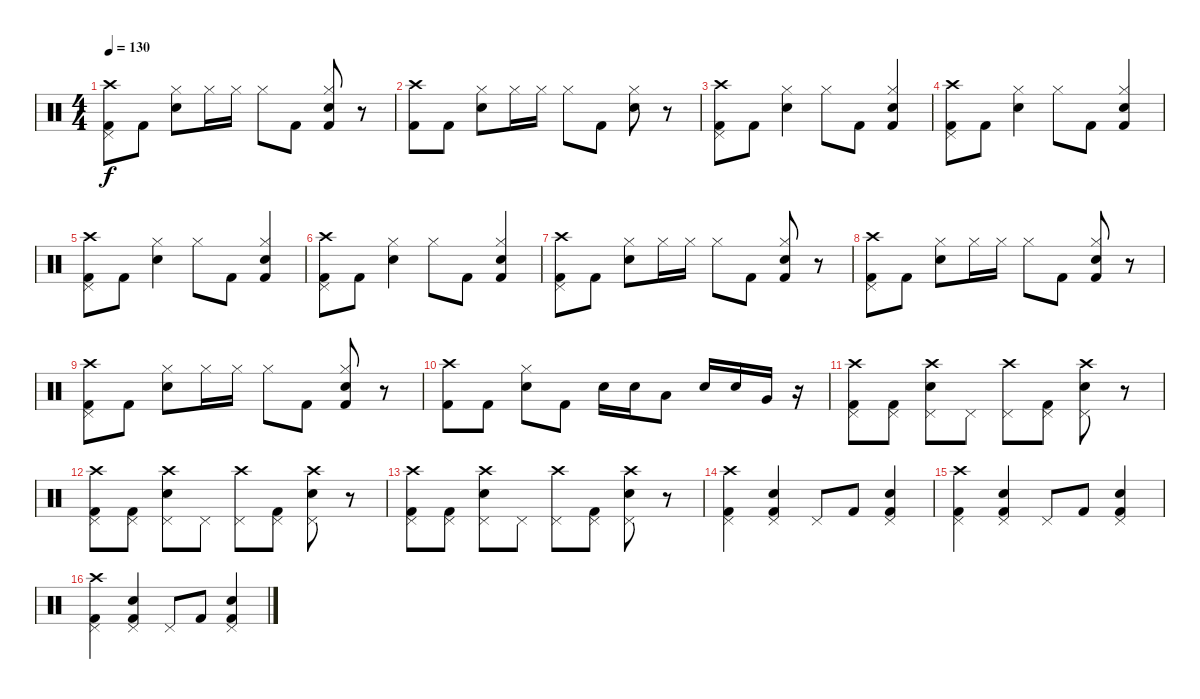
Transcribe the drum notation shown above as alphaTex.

\track "" {instrument percussion}
\staff {score}
\articulation defaults
\ts (4 4)
\tempo 130
\clef neutral
\ks c
("Crash high (hit)" "Pedal Hi-Hat (hit)" "Kick (hit) 2").8{dy f} "Kick (hit) 2".8 ("Hi-Hat (closed)" "Electric Snare (hit)").8 "Hi-Hat (closed)".16 "Hi-Hat (closed)".16 "Hi-Hat (closed)".8 "Kick (hit) 2".8 ("Hi-Hat (closed)" "Electric Snare (hit)" "Kick (hit) 2").8 r.8 |
("Crash high (hit)" "Kick (hit) 2").8 "Kick (hit) 2".8 ("Hi-Hat (closed)" "Electric Snare (hit)").8 "Hi-Hat (closed)".16 "Hi-Hat (closed)".16 "Hi-Hat (closed)".8 "Kick (hit) 2".8 ("Hi-Hat (closed)" "Electric Snare (hit)").8 r.8 |
("Crash high (hit)" "Pedal Hi-Hat (hit)" "Kick (hit) 2").8 "Kick (hit) 2".8 ("Hi-Hat (closed)" "Electric Snare (hit)").4 "Hi-Hat (closed)".8 "Kick (hit) 2".8 ("Hi-Hat (closed)" "Kick (hit) 2" "Electric Snare (hit)").4 |
("Crash high (hit)" "Pedal Hi-Hat (hit)" "Kick (hit) 2").8 "Kick (hit) 2".8 ("Hi-Hat (closed)" "Electric Snare (hit)").4 "Hi-Hat (closed)".8 "Kick (hit) 2".8 ("Hi-Hat (closed)" "Kick (hit) 2" "Electric Snare (hit)").4 |
("Crash high (hit)" "Pedal Hi-Hat (hit)" "Kick (hit) 2").8 "Kick (hit) 2".8 ("Hi-Hat (closed)" "Electric Snare (hit)").4 "Hi-Hat (closed)".8 "Kick (hit) 2".8 ("Hi-Hat (closed)" "Kick (hit) 2" "Electric Snare (hit)").4 |
("Crash high (hit)" "Pedal Hi-Hat (hit)" "Kick (hit) 2").8 "Kick (hit) 2".8 ("Hi-Hat (closed)" "Electric Snare (hit)").4 "Hi-Hat (closed)".8 "Kick (hit) 2".8 ("Hi-Hat (closed)" "Kick (hit) 2" "Electric Snare (hit)").4 |
("Crash high (hit)" "Pedal Hi-Hat (hit)" "Kick (hit) 2").8 "Kick (hit) 2".8 ("Hi-Hat (closed)" "Electric Snare (hit)").8 "Hi-Hat (closed)".16 "Hi-Hat (closed)".16 "Hi-Hat (closed)".8 "Kick (hit) 2".8 ("Hi-Hat (closed)" "Electric Snare (hit)" "Kick (hit) 2").8 r.8 |
("Crash high (hit)" "Pedal Hi-Hat (hit)" "Kick (hit) 2").8 "Kick (hit) 2".8 ("Hi-Hat (closed)" "Electric Snare (hit)").8 "Hi-Hat (closed)".16 "Hi-Hat (closed)".16 "Hi-Hat (closed)".8 "Kick (hit) 2".8 ("Hi-Hat (closed)" "Electric Snare (hit)" "Kick (hit) 2").8 r.8 |
("Crash high (hit)" "Pedal Hi-Hat (hit)" "Kick (hit) 2").8 "Kick (hit) 2".8 ("Hi-Hat (closed)" "Electric Snare (hit)").8 "Hi-Hat (closed)".16 "Hi-Hat (closed)".16 "Hi-Hat (closed)".8 "Kick (hit) 2".8 ("Hi-Hat (closed)" "Electric Snare (hit)" "Kick (hit) 2").8 r.8 |
("Crash high (hit)" "Kick (hit) 2").8 "Kick (hit) 2".8 ("Hi-Hat (closed)" "Electric Snare (hit)").8 "Kick (hit) 2".8 "Electric Snare (hit)".16 "Electric Snare (hit)".16 "Low Tom (hit)".8 "Electric Snare (hit)".16 "Electric Snare (hit)".16 "Very Low Tom (hit)".16 r.16 |
("Crash high (hit)" "Pedal Hi-Hat (hit)" "Kick (hit) 2").8 ("Pedal Hi-Hat (hit)" "Kick (hit) 2").8 ("Crash high (hit)" "Pedal Hi-Hat (hit)" "Electric Snare (hit)").8 "Pedal Hi-Hat (hit)".8 ("Crash high (hit)" "Pedal Hi-Hat (hit)").8 ("Pedal Hi-Hat (hit)" "Kick (hit) 2").8 ("Crash high (hit)" "Pedal Hi-Hat (hit)" "Electric Snare (hit)").8 r.8 |
("Crash high (hit)" "Pedal Hi-Hat (hit)" "Kick (hit) 2").8 ("Pedal Hi-Hat (hit)" "Kick (hit) 2").8 ("Crash high (hit)" "Pedal Hi-Hat (hit)" "Electric Snare (hit)").8 "Pedal Hi-Hat (hit)".8 ("Crash high (hit)" "Pedal Hi-Hat (hit)").8 ("Pedal Hi-Hat (hit)" "Kick (hit) 2").8 ("Crash high (hit)" "Pedal Hi-Hat (hit)" "Electric Snare (hit)").8 r.8 |
("Crash high (hit)" "Pedal Hi-Hat (hit)" "Kick (hit) 2").8 ("Pedal Hi-Hat (hit)" "Kick (hit) 2").8 ("Crash high (hit)" "Pedal Hi-Hat (hit)" "Electric Snare (hit)").8 "Pedal Hi-Hat (hit)".8 ("Crash high (hit)" "Pedal Hi-Hat (hit)").8 ("Pedal Hi-Hat (hit)" "Kick (hit) 2").8 ("Crash high (hit)" "Pedal Hi-Hat (hit)" "Electric Snare (hit)").8 r.8 |
("Crash high (hit)" "Pedal Hi-Hat (hit)" "Kick (hit) 2").4 ("Pedal Hi-Hat (hit)" "Electric Snare (hit)" "Kick (hit) 2").4 "Pedal Hi-Hat (hit)".8 "Kick (hit) 2".8 ("Pedal Hi-Hat (hit)" "Kick (hit) 2" "Electric Snare (hit)").4 |
("Crash high (hit)" "Pedal Hi-Hat (hit)" "Kick (hit) 2").4 ("Pedal Hi-Hat (hit)" "Electric Snare (hit)" "Kick (hit) 2").4 "Pedal Hi-Hat (hit)".8 "Kick (hit) 2".8 ("Pedal Hi-Hat (hit)" "Kick (hit) 2" "Electric Snare (hit)").4 |
("Crash high (hit)" "Pedal Hi-Hat (hit)" "Kick (hit) 2").4 ("Pedal Hi-Hat (hit)" "Electric Snare (hit)" "Kick (hit) 2").4 "Pedal Hi-Hat (hit)".8 "Kick (hit) 2".8 ("Pedal Hi-Hat (hit)" "Kick (hit) 2" "Electric Snare (hit)").4
